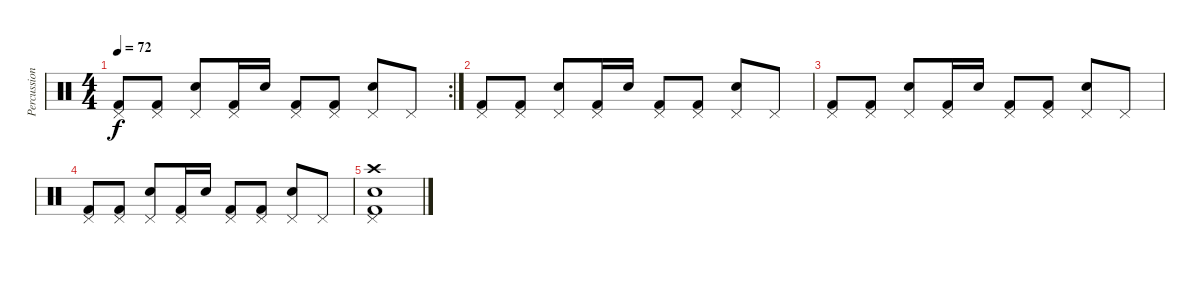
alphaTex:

\track ("Percussion" "Percussion") {instrument percussion}
\staff {score}
\articulation defaults
\rc 2
\ts (4 4)
\tempo 72
\clef neutral
\ks c
("Pedal Hi-Hat (hit)" "Kick (hit) 2").8{dy f} ("Pedal Hi-Hat (hit)" "Kick (hit) 2").8 ("Pedal Hi-Hat (hit)" "Snare (hit) 2").8 ("Pedal Hi-Hat (hit)" "Kick (hit) 2").16 "Snare (hit) 2".16 ("Pedal Hi-Hat (hit)" "Kick (hit) 2").8 ("Pedal Hi-Hat (hit)" "Kick (hit) 2").8 ("Pedal Hi-Hat (hit)" "Snare (hit) 2").8 "Pedal Hi-Hat (hit)".8 |
("Pedal Hi-Hat (hit)" "Kick (hit) 2").8 ("Pedal Hi-Hat (hit)" "Kick (hit) 2").8 ("Pedal Hi-Hat (hit)" "Snare (hit) 2").8 ("Pedal Hi-Hat (hit)" "Kick (hit) 2").16 "Snare (hit) 2".16 ("Pedal Hi-Hat (hit)" "Kick (hit) 2").8 ("Pedal Hi-Hat (hit)" "Kick (hit) 2").8 ("Pedal Hi-Hat (hit)" "Snare (hit) 2").8 "Pedal Hi-Hat (hit)".8 |
("Pedal Hi-Hat (hit)" "Kick (hit) 2").8 ("Pedal Hi-Hat (hit)" "Kick (hit) 2").8 ("Pedal Hi-Hat (hit)" "Snare (hit) 2").8 ("Pedal Hi-Hat (hit)" "Kick (hit) 2").16 "Snare (hit) 2".16 ("Pedal Hi-Hat (hit)" "Kick (hit) 2").8 ("Pedal Hi-Hat (hit)" "Kick (hit) 2").8 ("Pedal Hi-Hat (hit)" "Snare (hit) 2").8 "Pedal Hi-Hat (hit)".8 |
("Pedal Hi-Hat (hit)" "Kick (hit) 2").8 ("Pedal Hi-Hat (hit)" "Kick (hit) 2").8 ("Pedal Hi-Hat (hit)" "Snare (hit) 2").8 ("Pedal Hi-Hat (hit)" "Kick (hit) 2").16 "Snare (hit) 2".16 ("Pedal Hi-Hat (hit)" "Kick (hit) 2").8 ("Pedal Hi-Hat (hit)" "Kick (hit) 2").8 ("Pedal Hi-Hat (hit)" "Snare (hit) 2").8 "Pedal Hi-Hat (hit)".8 |
("Pedal Hi-Hat (hit)" "Crash high (hit)" "Snare (hit) 2" "Kick (hit) 2").1
